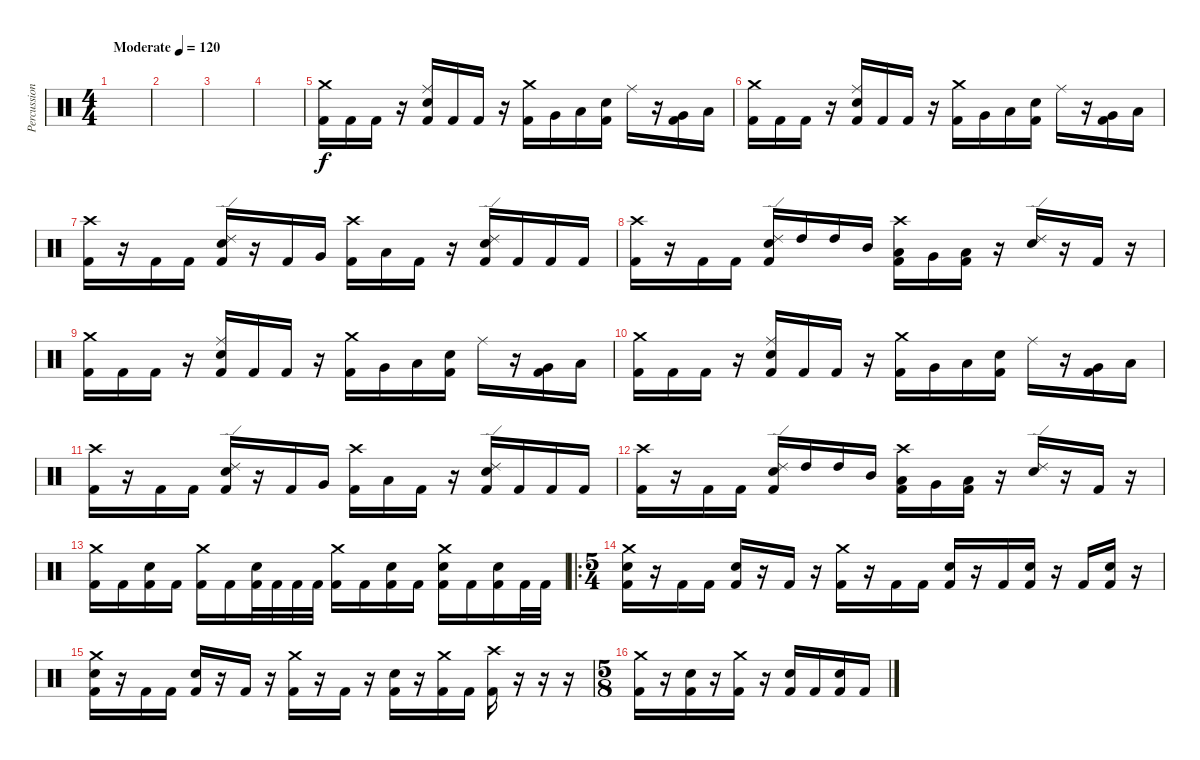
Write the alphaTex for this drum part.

\track ("Percussion" "Percussion") {instrument percussion}
\staff {score}
\articulation defaults
\ts (4 4)
\tempo (120 "Moderate")
\clef neutral
\ks c
|
|
|
|
("Crash medium (hit)" "Kick (hit) 2").16 "Kick (hit) 2".16 "Kick (hit) 2".16 r.16 ("Ride (middle)" "Electric Snare (hit)" "Kick (hit) 2").16 "Kick (hit) 2".16 "Kick (hit) 2".16 r.16 ("Crash medium (hit)" "Kick (hit) 2").16 "Very Low Tom (hit)".16 "Low Tom (hit)".16 ("Electric Snare (hit)" "Kick (hit) 2").16 "Ride (middle)".16 r.16 ("Very Low Tom (hit)" "Kick (hit) 2").16 "Low Floor Tom (hit)".16 |
("Crash medium (hit)" "Kick (hit) 2").16 "Kick (hit) 2".16 "Kick (hit) 2".16 r.16 ("Ride (middle)" "Electric Snare (hit)" "Kick (hit) 2").16 "Kick (hit) 2".16 "Kick (hit) 2".16 r.16 ("Crash medium (hit)" "Kick (hit) 2").16 "Very Low Tom (hit)".16 "Low Tom (hit)".16 ("Electric Snare (hit)" "Kick (hit) 2").16 "Ride (middle)".16 r.16 ("Very Low Tom (hit)" "Kick (hit) 2").16 "Low Floor Tom (hit)".16 |
("Crash high (hit)" "Kick (hit) 2").16 r.16 "Kick (hit) 2".16 "Kick (hit) 2".16 ("Ride (edge) 2" "Electric Snare (hit)" "Kick (hit) 2").16 r.16 "Kick (hit) 2".16 "Very Low Tom (hit)".16 ("Crash high (hit)" "Kick (hit) 2").16 "Low Floor Tom (hit)".16 "Kick (hit) 2".16 r.16 ("Ride (edge) 2" "Electric Snare (hit)" "Kick (hit) 2").16 "Kick (hit) 2".16 "Kick (hit) 2".16 "Kick (hit) 2".16 |
("Crash high (hit)" "Kick (hit) 2").16 r.16 "Kick (hit) 2".16 "Kick (hit) 2".16 ("Ride (edge) 2" "Electric Snare (hit)" "Kick (hit) 2").16 "High Tom (hit)".16 "High Tom (hit)".16 "Mid Tom (hit)".16 ("Crash high (hit)" "Low Tom (hit)" "Kick (hit) 2").16 "Very Low Tom (hit)".16 ("Low Floor Tom (hit)" "Kick (hit) 2").16 r.16 ("Ride (edge) 2" "Electric Snare (hit)").16 r.16 "Kick (hit) 2".16 r.16 |
("Crash medium (hit)" "Kick (hit) 2").16 "Kick (hit) 2".16 "Kick (hit) 2".16 r.16 ("Ride (middle)" "Electric Snare (hit)" "Kick (hit) 2").16 "Kick (hit) 2".16 "Kick (hit) 2".16 r.16 ("Crash medium (hit)" "Kick (hit) 2").16 "Very Low Tom (hit)".16 "Low Tom (hit)".16 ("Electric Snare (hit)" "Kick (hit) 2").16 "Ride (middle)".16 r.16 ("Very Low Tom (hit)" "Kick (hit) 2").16 "Low Floor Tom (hit)".16 |
("Crash medium (hit)" "Kick (hit) 2").16 "Kick (hit) 2".16 "Kick (hit) 2".16 r.16 ("Ride (middle)" "Electric Snare (hit)" "Kick (hit) 2").16 "Kick (hit) 2".16 "Kick (hit) 2".16 r.16 ("Crash medium (hit)" "Kick (hit) 2").16 "Very Low Tom (hit)".16 "Low Tom (hit)".16 ("Electric Snare (hit)" "Kick (hit) 2").16 "Ride (middle)".16 r.16 ("Very Low Tom (hit)" "Kick (hit) 2").16 "Low Floor Tom (hit)".16 |
("Crash high (hit)" "Kick (hit) 2").16 r.16 "Kick (hit) 2".16 "Kick (hit) 2".16 ("Ride (edge) 2" "Electric Snare (hit)" "Kick (hit) 2").16 r.16 "Kick (hit) 2".16 "Very Low Tom (hit)".16 ("Crash high (hit)" "Kick (hit) 2").16 "Low Floor Tom (hit)".16 "Kick (hit) 2".16 r.16 ("Ride (edge) 2" "Electric Snare (hit)" "Kick (hit) 2").16 "Kick (hit) 2".16 "Kick (hit) 2".16 "Kick (hit) 2".16 |
("Crash high (hit)" "Kick (hit) 2").16 r.16 "Kick (hit) 2".16 "Kick (hit) 2".16 ("Ride (edge) 2" "Electric Snare (hit)" "Kick (hit) 2").16 "High Tom (hit)".16 "High Tom (hit)".16 "Mid Tom (hit)".16 ("Crash high (hit)" "Low Tom (hit)" "Kick (hit) 2").16 "Very Low Tom (hit)".16 ("Low Floor Tom (hit)" "Kick (hit) 2").16 r.16 ("Ride (edge) 2" "Electric Snare (hit)").16 r.16 "Kick (hit) 2".16 r.16 |
("Crash medium (hit)" "Kick (hit) 2").16 "Kick (hit) 2".16 ("Electric Snare (hit)" "Kick (hit) 2").16 "Kick (hit) 2".16 ("Crash medium (hit)" "Kick (hit) 2").16 "Kick (hit) 2".16 ("Electric Snare (hit)" "Kick (hit) 2").32 "Kick (hit) 2".32 "Kick (hit) 2".32 "Kick (hit) 2".32 ("Crash medium (hit)" "Kick (hit) 2").16 "Kick (hit) 2".16 ("Electric Snare (hit)" "Kick (hit) 2").16 "Kick (hit) 2".16 ("Crash medium (hit)" "Electric Snare (hit)" "Kick (hit) 2").16 "Kick (hit) 2".16 ("Electric Snare (hit)" "Kick (hit) 2").16 "Kick (hit) 2".32 "Kick (hit) 2".32 |
\ro
\ts (5 4)
("Crash medium (hit)" "Electric Snare (hit)" "Kick (hit) 2").16 r.16 "Kick (hit) 2".16 "Kick (hit) 2".16 ("Electric Snare (hit)" "Kick (hit) 2").16 r.16 "Kick (hit) 2".16 r.16 ("Crash medium (hit)" "Kick (hit) 2").16 r.16 "Kick (hit) 2".16 "Kick (hit) 2".16 ("Electric Snare (hit)" "Kick (hit) 2").16 r.16 "Kick (hit) 2".16 ("Electric Snare (hit)" "Kick (hit) 2").16 r.16 "Kick (hit) 2".16 ("Electric Snare (hit)" "Kick (hit) 2").16 r.16 |
("Crash medium (hit)" "Electric Snare (hit)" "Kick (hit) 2").16 r.16 "Kick (hit) 2".16 "Kick (hit) 2".16 ("Electric Snare (hit)" "Kick (hit) 2").16 r.16 "Kick (hit) 2".16 r.16 ("Crash medium (hit)" "Kick (hit) 2").16 r.16 "Kick (hit) 2".16 r.16 ("Electric Snare (hit)" "Kick (hit) 2").16 r.16 ("Crash medium (hit)" "Kick (hit) 2").16 "Kick (hit) 2".16 ("Crash high (hit)" "Kick (hit) 2").16 r.16 r.16 r.16 |
\ts (5 8)
("Crash medium (hit)" "Kick (hit) 2").16 r.16 ("Electric Snare (hit)" "Kick (hit) 2").16 r.16 ("Crash medium (hit)" "Kick (hit) 2").16 r.16 ("Electric Snare (hit)" "Kick (hit) 2").16 "Kick (hit) 2".16 ("Electric Snare (hit)" "Kick (hit) 2").16 "Kick (hit) 2".16
